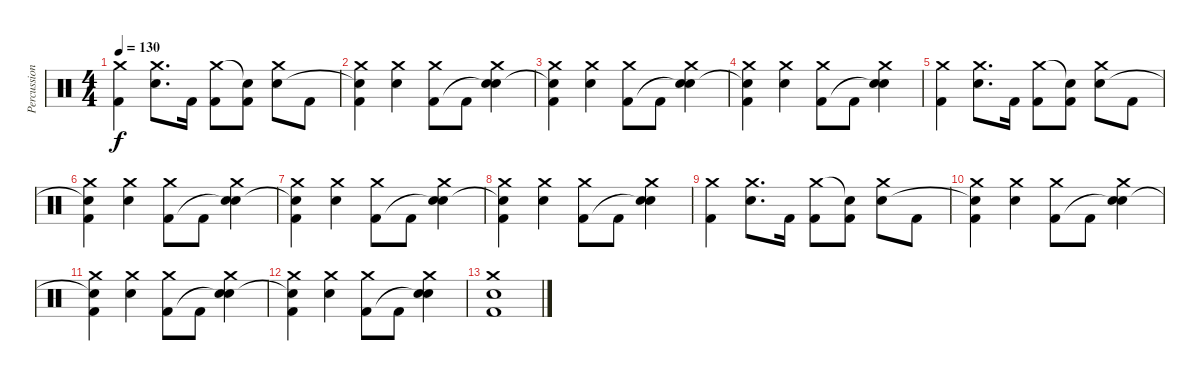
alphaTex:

\track ("Percussion" "Percussion") {instrument percussion}
\staff {score}
\articulation defaults
\ts (4 4)
\tempo 130
\clef neutral
\ks c
("Crash medium (hit)" "Kick (hit) 2").4{dy f} ("Crash medium (hit)" "Snare (hit) 2").8{d} "Kick (hit) 2".16 ("Crash medium (hit)" "Kick (hit) 2").8 ("Snare (hit)"{t} "Kick (hit) 2").8 ("Crash medium (hit)" "Snare (hit) 2").8 "Kick (hit) 2".8 |
("Crash medium (hit)" "Snare (hit)"{t} "Kick (hit) 2").4 ("Crash medium (hit)" "Snare (hit) 2").4 ("Crash medium (hit)" "Kick (hit) 2").8 "Kick (hit) 2".8 ("Crash medium (hit)" "Snare (hit)"{t} "Snare (hit) 2").4 |
("Crash medium (hit)" "Snare (hit)"{t} "Kick (hit) 2").4 ("Crash medium (hit)" "Snare (hit) 2").4 ("Crash medium (hit)" "Kick (hit) 2").8 "Kick (hit) 2".8 ("Crash medium (hit)" "Snare (hit)"{t} "Snare (hit) 2").4 |
("Crash medium (hit)" "Snare (hit)"{t} "Kick (hit) 2").4 ("Crash medium (hit)" "Snare (hit) 2").4 ("Crash medium (hit)" "Kick (hit) 2").8 "Kick (hit) 2".8 ("Crash medium (hit)" "Snare (hit)"{t} "Snare (hit) 2").4 |
("Crash medium (hit)" "Kick (hit) 2").4 ("Crash medium (hit)" "Snare (hit) 2").8{d} "Kick (hit) 2".16 ("Crash medium (hit)" "Kick (hit) 2").8 ("Snare (hit)"{t} "Kick (hit) 2").8 ("Crash medium (hit)" "Snare (hit) 2").8 "Kick (hit) 2".8 |
("Crash medium (hit)" "Snare (hit)"{t} "Kick (hit) 2").4 ("Crash medium (hit)" "Snare (hit) 2").4 ("Crash medium (hit)" "Kick (hit) 2").8 "Kick (hit) 2".8 ("Crash medium (hit)" "Snare (hit)"{t} "Snare (hit) 2").4 |
("Crash medium (hit)" "Snare (hit)"{t} "Kick (hit) 2").4 ("Crash medium (hit)" "Snare (hit) 2").4 ("Crash medium (hit)" "Kick (hit) 2").8 "Kick (hit) 2".8 ("Crash medium (hit)" "Snare (hit)"{t} "Snare (hit) 2").4 |
("Crash medium (hit)" "Snare (hit)"{t} "Kick (hit) 2").4 ("Crash medium (hit)" "Snare (hit) 2").4 ("Crash medium (hit)" "Kick (hit) 2").8 "Kick (hit) 2".8 ("Crash medium (hit)" "Snare (hit)"{t} "Snare (hit) 2").4 |
("Crash medium (hit)" "Kick (hit) 2").4 ("Crash medium (hit)" "Snare (hit) 2").8{d} "Kick (hit) 2".16 ("Crash medium (hit)" "Kick (hit) 2").8 ("Snare (hit)"{t} "Kick (hit) 2").8 ("Crash medium (hit)" "Snare (hit) 2").8 "Kick (hit) 2".8 |
("Crash medium (hit)" "Snare (hit)"{t} "Kick (hit) 2").4 ("Crash medium (hit)" "Snare (hit) 2").4 ("Crash medium (hit)" "Kick (hit) 2").8 "Kick (hit) 2".8 ("Crash medium (hit)" "Snare (hit)"{t} "Snare (hit) 2").4 |
("Crash medium (hit)" "Snare (hit)"{t} "Kick (hit) 2").4 ("Crash medium (hit)" "Snare (hit) 2").4 ("Crash medium (hit)" "Kick (hit) 2").8 "Kick (hit) 2".8 ("Crash medium (hit)" "Snare (hit)"{t} "Snare (hit) 2").4 |
("Crash medium (hit)" "Snare (hit)"{t} "Kick (hit) 2").4 ("Crash medium (hit)" "Snare (hit) 2").4 ("Crash medium (hit)" "Kick (hit) 2").8 "Kick (hit) 2".8 ("Crash medium (hit)" "Snare (hit)"{t} "Snare (hit) 2").4 |
("Crash medium (hit)" "Snare (hit) 2" "Kick (hit) 2").1
